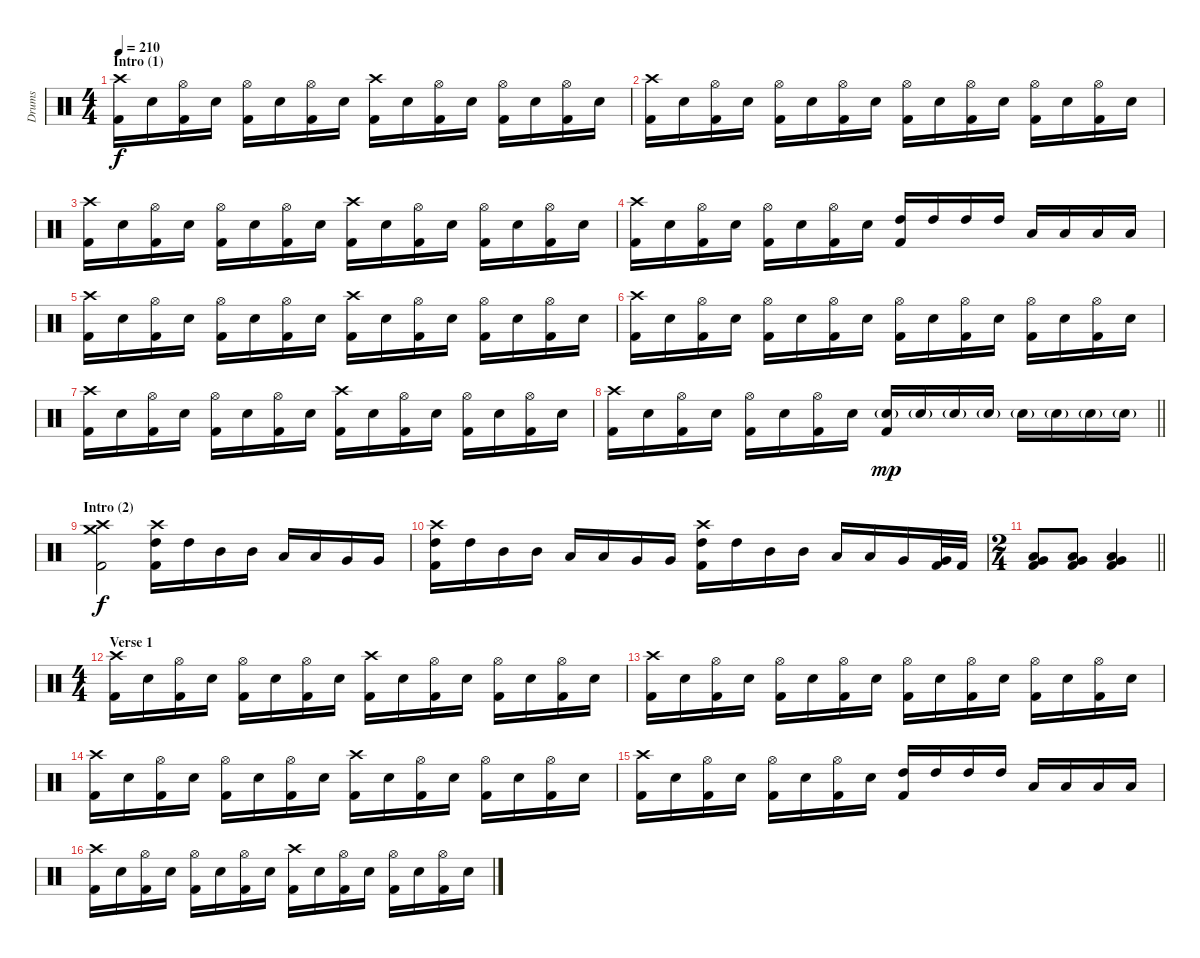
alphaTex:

\track ("Drums" "Drums") {instrument percussion}
\staff {score}
\articulation defaults
\ts (4 4)
\section ("" "Intro (1)")
\tempo 210
\clef neutral
\ks c
("Crash high (hit)" "Kick (hit) 2").16{dy f} "Electric Snare (hit)".16 ("Hi-Hat (open)" "Kick (hit) 2").16 "Electric Snare (hit)".16 ("Hi-Hat (open)" "Kick (hit) 2").16 "Electric Snare (hit)".16 ("Hi-Hat (open)" "Kick (hit) 2").16 "Electric Snare (hit)".16 ("Crash high (hit)" "Kick (hit) 2").16 "Electric Snare (hit)".16 ("Hi-Hat (open)" "Kick (hit) 2").16 "Electric Snare (hit)".16 ("Hi-Hat (open)" "Kick (hit) 2").16 "Electric Snare (hit)".16 ("Hi-Hat (open)" "Kick (hit) 2").16 "Electric Snare (hit)".16 |
("Crash high (hit)" "Kick (hit) 2").16 "Electric Snare (hit)".16 ("Hi-Hat (open)" "Kick (hit) 2").16 "Electric Snare (hit)".16 ("Hi-Hat (open)" "Kick (hit) 2").16 "Electric Snare (hit)".16 ("Hi-Hat (open)" "Kick (hit) 2").16 "Electric Snare (hit)".16 ("Hi-Hat (open)" "Kick (hit) 2").16 "Electric Snare (hit)".16 ("Hi-Hat (open)" "Kick (hit) 2").16 "Electric Snare (hit)".16 ("Hi-Hat (open)" "Kick (hit) 2").16 "Electric Snare (hit)".16 ("Hi-Hat (open)" "Kick (hit) 2").16 "Electric Snare (hit)".16 |
("Crash high (hit)" "Kick (hit) 2").16 "Electric Snare (hit)".16 ("Hi-Hat (open)" "Kick (hit) 2").16 "Electric Snare (hit)".16 ("Hi-Hat (open)" "Kick (hit) 2").16 "Electric Snare (hit)".16 ("Hi-Hat (open)" "Kick (hit) 2").16 "Electric Snare (hit)".16 ("Crash high (hit)" "Kick (hit) 2").16 "Electric Snare (hit)".16 ("Hi-Hat (open)" "Kick (hit) 2").16 "Electric Snare (hit)".16 ("Hi-Hat (open)" "Kick (hit) 2").16 "Electric Snare (hit)".16 ("Hi-Hat (open)" "Kick (hit) 2").16 "Electric Snare (hit)".16 |
("Crash high (hit)" "Kick (hit) 2").16 "Electric Snare (hit)".16 ("Hi-Hat (open)" "Kick (hit) 2").16 "Electric Snare (hit)".16 ("Hi-Hat (open)" "Kick (hit) 2").16 "Electric Snare (hit)".16 ("Hi-Hat (open)" "Kick (hit) 2").16 "Electric Snare (hit)".16 ("High Tom (hit)" "Kick (hit) 2").16 "High Tom (hit)".16 "High Tom (hit)".16 "High Tom (hit)".16 "Low Tom (hit)".16 "Low Tom (hit)".16 "Low Tom (hit)".16 "Low Tom (hit)".16 |
("Crash high (hit)" "Kick (hit) 2").16 "Electric Snare (hit)".16 ("Hi-Hat (open)" "Kick (hit) 2").16 "Electric Snare (hit)".16 ("Hi-Hat (open)" "Kick (hit) 2").16 "Electric Snare (hit)".16 ("Hi-Hat (open)" "Kick (hit) 2").16 "Electric Snare (hit)".16 ("Crash high (hit)" "Kick (hit) 2").16 "Electric Snare (hit)".16 ("Hi-Hat (open)" "Kick (hit) 2").16 "Electric Snare (hit)".16 ("Hi-Hat (open)" "Kick (hit) 2").16 "Electric Snare (hit)".16 ("Hi-Hat (open)" "Kick (hit) 2").16 "Electric Snare (hit)".16 |
("Crash high (hit)" "Kick (hit) 2").16 "Electric Snare (hit)".16 ("Hi-Hat (open)" "Kick (hit) 2").16 "Electric Snare (hit)".16 ("Hi-Hat (open)" "Kick (hit) 2").16 "Electric Snare (hit)".16 ("Hi-Hat (open)" "Kick (hit) 2").16 "Electric Snare (hit)".16 ("Hi-Hat (open)" "Kick (hit) 2").16 "Electric Snare (hit)".16 ("Hi-Hat (open)" "Kick (hit) 2").16 "Electric Snare (hit)".16 ("Hi-Hat (open)" "Kick (hit) 2").16 "Electric Snare (hit)".16 ("Hi-Hat (open)" "Kick (hit) 2").16 "Electric Snare (hit)".16 |
("Crash high (hit)" "Kick (hit) 2").16 "Electric Snare (hit)".16 ("Hi-Hat (open)" "Kick (hit) 2").16 "Electric Snare (hit)".16 ("Hi-Hat (open)" "Kick (hit) 2").16 "Electric Snare (hit)".16 ("Hi-Hat (open)" "Kick (hit) 2").16 "Electric Snare (hit)".16 ("Crash high (hit)" "Kick (hit) 2").16 "Electric Snare (hit)".16 ("Hi-Hat (open)" "Kick (hit) 2").16 "Electric Snare (hit)".16 ("Hi-Hat (open)" "Kick (hit) 2").16 "Electric Snare (hit)".16 ("Hi-Hat (open)" "Kick (hit) 2").16 "Electric Snare (hit)".16 |
\barLineRight lightlight
("Crash high (hit)" "Kick (hit) 2").16 "Electric Snare (hit)".16 ("Hi-Hat (open)" "Kick (hit) 2").16 "Electric Snare (hit)".16 ("Hi-Hat (open)" "Kick (hit) 2").16 "Electric Snare (hit)".16 ("Hi-Hat (open)" "Kick (hit) 2").16 "Electric Snare (hit)".16 ("Electric Snare (hit)"{g} "Kick (hit) 2").16{dy mp} "Electric Snare (hit)"{g}.16 "Electric Snare (hit)"{g}.16 "Electric Snare (hit)"{g}.16 "Electric Snare (hit)"{g}.16 "Electric Snare (hit)"{g}.16 "Electric Snare (hit)"{g}.16 "Electric Snare (hit)"{g}.16 |
\section ("" "Intro (2)")
("Crash high (hit)" "Crash medium (hit)" "Kick (hit) 2").2{dy f} ("Crash high (hit)" "High Tom (hit)" "Kick (hit) 2").16 "High Tom (hit)".16 "Mid Tom (hit)".16 "Mid Tom (hit)".16 "Low Tom (hit)".16 "Low Tom (hit)".16 "Very Low Tom (hit)".16 "Very Low Tom (hit)".16 |
("Crash high (hit)" "High Tom (hit)" "Kick (hit) 2").16 "High Tom (hit)".16 "Mid Tom (hit)".16 "Mid Tom (hit)".16 "Low Tom (hit)".16 "Low Tom (hit)".16 "Very Low Tom (hit)".16 "Very Low Tom (hit)".16 ("Crash high (hit)" "High Tom (hit)" "Kick (hit) 2").16 "High Tom (hit)".16 "Mid Tom (hit)".16 "Mid Tom (hit)".16 "Low Tom (hit)".16 "Low Tom (hit)".16 "Very Low Tom (hit)".16 ("Very Low Tom (hit)" "Kick (hit) 2").32 "Kick (hit) 2".32 |
\ts (2 4)
\barLineRight lightlight
("Very Low Tom (hit)" "Low Floor Tom (hit)" "Kick (hit) 2").8 ("Very Low Tom (hit)" "Low Floor Tom (hit)" "Kick (hit) 2").8 ("Very Low Tom (hit)" "Low Floor Tom (hit)" "Kick (hit) 2").4 |
\ts (4 4)
\section ("" "Verse 1")
("Crash high (hit)" "Kick (hit) 2").16 "Electric Snare (hit)".16 ("Hi-Hat (open)" "Kick (hit) 2").16 "Electric Snare (hit)".16 ("Hi-Hat (open)" "Kick (hit) 2").16 "Electric Snare (hit)".16 ("Hi-Hat (open)" "Kick (hit) 2").16 "Electric Snare (hit)".16 ("Crash high (hit)" "Kick (hit) 2").16 "Electric Snare (hit)".16 ("Hi-Hat (open)" "Kick (hit) 2").16 "Electric Snare (hit)".16 ("Hi-Hat (open)" "Kick (hit) 2").16 "Electric Snare (hit)".16 ("Hi-Hat (open)" "Kick (hit) 2").16 "Electric Snare (hit)".16 |
("Crash high (hit)" "Kick (hit) 2").16 "Electric Snare (hit)".16 ("Hi-Hat (open)" "Kick (hit) 2").16 "Electric Snare (hit)".16 ("Hi-Hat (open)" "Kick (hit) 2").16 "Electric Snare (hit)".16 ("Hi-Hat (open)" "Kick (hit) 2").16 "Electric Snare (hit)".16 ("Hi-Hat (open)" "Kick (hit) 2").16 "Electric Snare (hit)".16 ("Hi-Hat (open)" "Kick (hit) 2").16 "Electric Snare (hit)".16 ("Hi-Hat (open)" "Kick (hit) 2").16 "Electric Snare (hit)".16 ("Hi-Hat (open)" "Kick (hit) 2").16 "Electric Snare (hit)".16 |
("Crash high (hit)" "Kick (hit) 2").16 "Electric Snare (hit)".16 ("Hi-Hat (open)" "Kick (hit) 2").16 "Electric Snare (hit)".16 ("Hi-Hat (open)" "Kick (hit) 2").16 "Electric Snare (hit)".16 ("Hi-Hat (open)" "Kick (hit) 2").16 "Electric Snare (hit)".16 ("Crash high (hit)" "Kick (hit) 2").16 "Electric Snare (hit)".16 ("Hi-Hat (open)" "Kick (hit) 2").16 "Electric Snare (hit)".16 ("Hi-Hat (open)" "Kick (hit) 2").16 "Electric Snare (hit)".16 ("Hi-Hat (open)" "Kick (hit) 2").16 "Electric Snare (hit)".16 |
("Crash high (hit)" "Kick (hit) 2").16 "Electric Snare (hit)".16 ("Hi-Hat (open)" "Kick (hit) 2").16 "Electric Snare (hit)".16 ("Hi-Hat (open)" "Kick (hit) 2").16 "Electric Snare (hit)".16 ("Hi-Hat (open)" "Kick (hit) 2").16 "Electric Snare (hit)".16 ("High Tom (hit)" "Kick (hit) 2").16 "High Tom (hit)".16 "High Tom (hit)".16 "High Tom (hit)".16 "Low Tom (hit)".16 "Low Tom (hit)".16 "Low Tom (hit)".16 "Low Tom (hit)".16 |
("Crash high (hit)" "Kick (hit) 2").16 "Electric Snare (hit)".16 ("Hi-Hat (open)" "Kick (hit) 2").16 "Electric Snare (hit)".16 ("Hi-Hat (open)" "Kick (hit) 2").16 "Electric Snare (hit)".16 ("Hi-Hat (open)" "Kick (hit) 2").16 "Electric Snare (hit)".16 ("Crash high (hit)" "Kick (hit) 2").16 "Electric Snare (hit)".16 ("Hi-Hat (open)" "Kick (hit) 2").16 "Electric Snare (hit)".16 ("Hi-Hat (open)" "Kick (hit) 2").16 "Electric Snare (hit)".16 ("Hi-Hat (open)" "Kick (hit) 2").16 "Electric Snare (hit)".16
